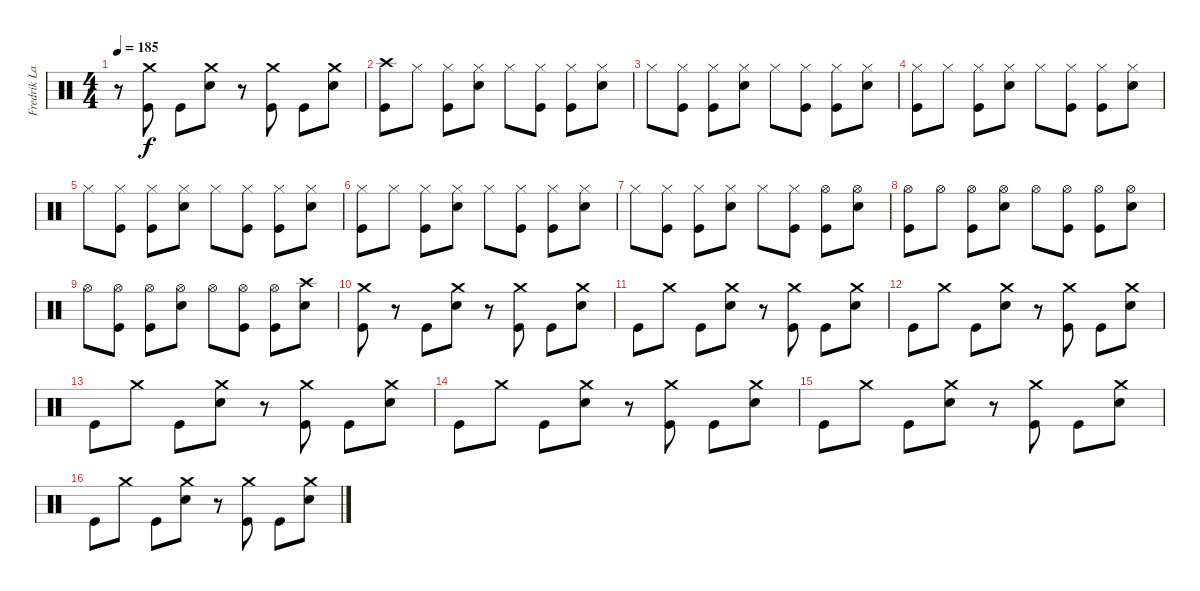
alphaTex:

\track ("Fredrik Larzon" "Fredrik La") {instrument percussion}
\staff {score}
\articulation defaults
\ts (4 4)
\tempo 185
\clef neutral
\ks c
r.8{dy f} ("Crash medium (hit)" "Kick (hit)").8 "Kick (hit)".8 ("Crash medium (hit)" "Electric Snare (hit)").8 r.8 ("Crash medium (hit)" "Kick (hit)").8 "Kick (hit)".8 ("Crash medium (hit)" "Electric Snare (hit)").8 |
("Crash high (hit)" "Kick (hit)").8 "Hi-Hat (closed)".8 ("Hi-Hat (closed)" "Kick (hit)").8 ("Hi-Hat (closed)" "Electric Snare (hit)").8 "Hi-Hat (closed)".8 ("Hi-Hat (closed)" "Kick (hit)").8 ("Hi-Hat (closed)" "Kick (hit)").8 ("Hi-Hat (closed)" "Electric Snare (hit)").8 |
"Hi-Hat (closed)".8 ("Hi-Hat (closed)" "Kick (hit)").8 ("Hi-Hat (closed)" "Kick (hit)").8 ("Hi-Hat (closed)" "Electric Snare (hit)").8 "Hi-Hat (closed)".8 ("Hi-Hat (closed)" "Kick (hit)").8 ("Hi-Hat (closed)" "Kick (hit)").8 ("Hi-Hat (closed)" "Electric Snare (hit)").8 |
("Hi-Hat (closed)" "Kick (hit)").8 "Hi-Hat (closed)".8 ("Hi-Hat (closed)" "Kick (hit)").8 ("Hi-Hat (closed)" "Electric Snare (hit)").8 "Hi-Hat (closed)".8 ("Hi-Hat (closed)" "Kick (hit)").8 ("Hi-Hat (closed)" "Kick (hit)").8 ("Hi-Hat (closed)" "Electric Snare (hit)").8 |
"Hi-Hat (closed)".8 ("Hi-Hat (closed)" "Kick (hit)").8 ("Hi-Hat (closed)" "Kick (hit)").8 ("Hi-Hat (closed)" "Electric Snare (hit)").8 "Hi-Hat (closed)".8 ("Hi-Hat (closed)" "Kick (hit)").8 ("Hi-Hat (closed)" "Kick (hit)").8 ("Hi-Hat (closed)" "Electric Snare (hit)").8 |
("Hi-Hat (closed)" "Kick (hit)").8 "Hi-Hat (closed)".8 ("Hi-Hat (closed)" "Kick (hit)").8 ("Hi-Hat (closed)" "Electric Snare (hit)").8 "Hi-Hat (closed)".8 ("Hi-Hat (closed)" "Kick (hit)").8 ("Hi-Hat (closed)" "Kick (hit)").8 ("Hi-Hat (closed)" "Electric Snare (hit)").8 |
"Hi-Hat (closed)".8 ("Hi-Hat (closed)" "Kick (hit)").8 ("Hi-Hat (closed)" "Kick (hit)").8 ("Hi-Hat (closed)" "Electric Snare (hit)").8 "Hi-Hat (closed)".8 ("Hi-Hat (closed)" "Kick (hit)").8 ("Hi-Hat (open)" "Kick (hit)").8 ("Hi-Hat (open)" "Electric Snare (hit)").8 |
("Hi-Hat (open)" "Kick (hit)").8 "Hi-Hat (open)".8 ("Hi-Hat (open)" "Kick (hit)").8 ("Hi-Hat (open)" "Electric Snare (hit)").8 "Hi-Hat (open)".8 ("Hi-Hat (open)" "Kick (hit)").8 ("Hi-Hat (open)" "Kick (hit)").8 ("Hi-Hat (open)" "Electric Snare (hit)").8 |
"Hi-Hat (open)".8 ("Hi-Hat (open)" "Kick (hit)").8 ("Hi-Hat (open)" "Kick (hit)").8 ("Hi-Hat (open)" "Electric Snare (hit)").8 "Hi-Hat (open)".8 ("Hi-Hat (open)" "Kick (hit)").8 ("Hi-Hat (open)" "Kick (hit)").8 ("Crash high (hit)" "Electric Snare (hit)").8 |
("Crash medium (hit)" "Kick (hit)").8 r.8 "Kick (hit)".8 ("Crash medium (hit)" "Electric Snare (hit)").8 r.8 ("Crash medium (hit)" "Kick (hit)").8 "Kick (hit)".8 ("Crash medium (hit)" "Electric Snare (hit)").8 |
"Kick (hit)".8 "Crash medium (hit)".8 "Kick (hit)".8 ("Crash medium (hit)" "Electric Snare (hit)").8 r.8 ("Crash medium (hit)" "Kick (hit)").8 "Kick (hit)".8 ("Crash medium (hit)" "Electric Snare (hit)").8 |
"Kick (hit)".8 "Crash medium (hit)".8 "Kick (hit)".8 ("Crash medium (hit)" "Electric Snare (hit)").8 r.8 ("Crash medium (hit)" "Kick (hit)").8 "Kick (hit)".8 ("Crash medium (hit)" "Electric Snare (hit)").8 |
"Kick (hit)".8 "Crash medium (hit)".8 "Kick (hit)".8 ("Crash medium (hit)" "Electric Snare (hit)").8 r.8 ("Crash medium (hit)" "Kick (hit)").8 "Kick (hit)".8 ("Crash medium (hit)" "Electric Snare (hit)").8 |
"Kick (hit)".8 "Crash medium (hit)".8 "Kick (hit)".8 ("Crash medium (hit)" "Electric Snare (hit)").8 r.8 ("Crash medium (hit)" "Kick (hit)").8 "Kick (hit)".8 ("Crash medium (hit)" "Electric Snare (hit)").8 |
"Kick (hit)".8 "Crash medium (hit)".8 "Kick (hit)".8 ("Crash medium (hit)" "Electric Snare (hit)").8 r.8 ("Crash medium (hit)" "Kick (hit)").8 "Kick (hit)".8 ("Crash medium (hit)" "Electric Snare (hit)").8 |
"Kick (hit)".8 "Crash medium (hit)".8 "Kick (hit)".8 ("Crash medium (hit)" "Electric Snare (hit)").8 r.8 ("Crash medium (hit)" "Kick (hit)").8 "Kick (hit)".8 ("Crash medium (hit)" "Electric Snare (hit)").8
